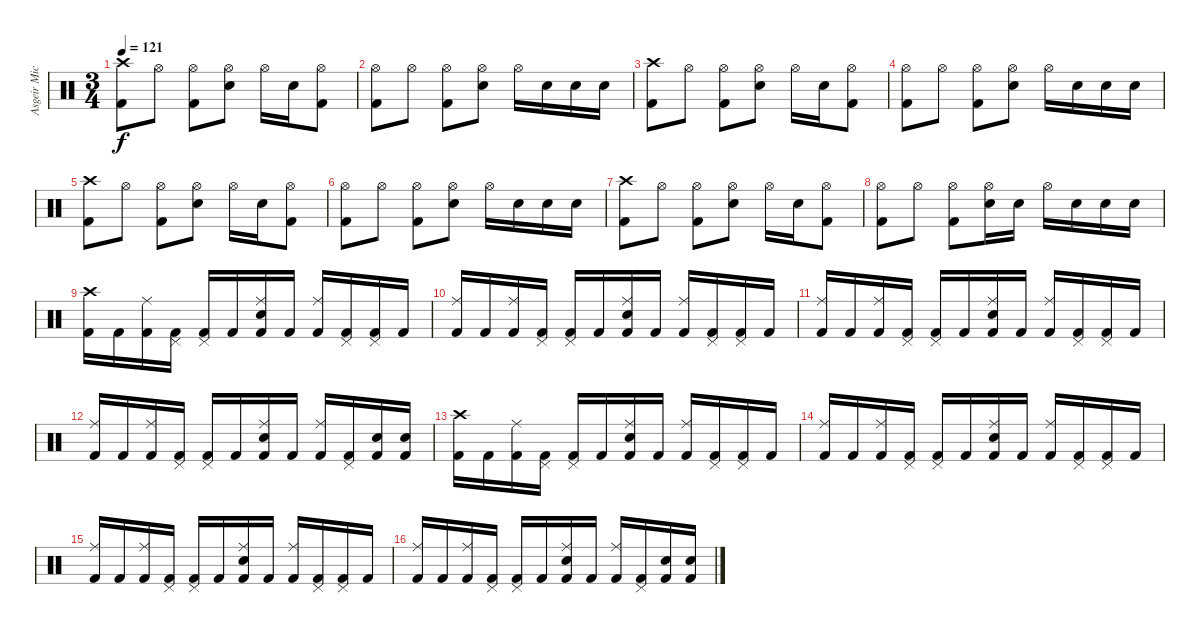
\track ("Asgeir Mickelson" "Asgeir Mic") {instrument percussion}
\staff {score}
\articulation defaults
\ts (3 4)
\tempo 121
\clef neutral
\ks c
("Crash high (hit)" "Kick (hit) 2").8{dy f} "Hi-Hat (open)".8 ("Hi-Hat (open)" "Kick (hit) 2").8 ("Hi-Hat (open)" "Electric Snare (hit)").8 "Hi-Hat (open)".16 "Electric Snare (hit)".16 ("Hi-Hat (open)" "Kick (hit) 2").8 |
("Hi-Hat (open)" "Kick (hit) 2").8 "Hi-Hat (open)".8 ("Hi-Hat (open)" "Kick (hit) 2").8 ("Hi-Hat (open)" "Electric Snare (hit)").8 "Hi-Hat (open)".16 "Electric Snare (hit)".16 "Electric Snare (hit)".16 "Electric Snare (hit)".16 |
("Crash high (hit)" "Kick (hit) 2").8 "Hi-Hat (open)".8 ("Hi-Hat (open)" "Kick (hit) 2").8 ("Hi-Hat (open)" "Electric Snare (hit)").8 "Hi-Hat (open)".16 "Electric Snare (hit)".16 ("Hi-Hat (open)" "Kick (hit) 2").8 |
("Hi-Hat (open)" "Kick (hit) 2").8 "Hi-Hat (open)".8 ("Hi-Hat (open)" "Kick (hit) 2").8 ("Hi-Hat (open)" "Electric Snare (hit)").8 "Hi-Hat (open)".16 "Electric Snare (hit)".16 "Electric Snare (hit)".16 "Electric Snare (hit)".16 |
("Crash high (hit)" "Kick (hit) 2").8 "Hi-Hat (open)".8 ("Hi-Hat (open)" "Kick (hit) 2").8 ("Hi-Hat (open)" "Electric Snare (hit)").8 "Hi-Hat (open)".16 "Electric Snare (hit)".16 ("Hi-Hat (open)" "Kick (hit) 2").8 |
("Hi-Hat (open)" "Kick (hit) 2").8 "Hi-Hat (open)".8 ("Hi-Hat (open)" "Kick (hit) 2").8 ("Hi-Hat (open)" "Electric Snare (hit)").8 "Hi-Hat (open)".16 "Electric Snare (hit)".16 "Electric Snare (hit)".16 "Electric Snare (hit)".16 |
("Crash high (hit)" "Kick (hit) 2").8 "Hi-Hat (open)".8 ("Hi-Hat (open)" "Kick (hit) 2").8 ("Hi-Hat (open)" "Electric Snare (hit)").8 "Hi-Hat (open)".16 "Electric Snare (hit)".16 ("Hi-Hat (open)" "Kick (hit) 2").8 |
("Hi-Hat (open)" "Kick (hit) 2").8 "Hi-Hat (open)".8 ("Hi-Hat (open)" "Kick (hit) 2").8 ("Hi-Hat (open)" "Electric Snare (hit)").16 "Electric Snare (hit)".16 "Hi-Hat (open)".16 "Electric Snare (hit)".16 "Electric Snare (hit)".16 "Electric Snare (hit)".16 |
("Crash high (hit)" "Kick (hit) 2").16 "Kick (hit) 2".16 ("Ride (middle)" "Kick (hit) 2").16 ("Pedal Hi-Hat (hit)" "Kick (hit) 2").16 ("Pedal Hi-Hat (hit)" "Kick (hit) 2").16 "Kick (hit) 2".16 ("Ride (middle)" "Electric Snare (hit)" "Kick (hit) 2").16 "Kick (hit) 2".16 ("Ride (middle)" "Kick (hit) 2").16 ("Pedal Hi-Hat (hit)" "Kick (hit) 2").16 ("Pedal Hi-Hat (hit)" "Kick (hit) 2").16 "Kick (hit) 2".16 |
("Ride (middle)" "Kick (hit) 2").16 "Kick (hit) 2".16 ("Ride (middle)" "Kick (hit) 2").16 ("Pedal Hi-Hat (hit)" "Kick (hit) 2").16 ("Pedal Hi-Hat (hit)" "Kick (hit) 2").16 "Kick (hit) 2".16 ("Ride (middle)" "Electric Snare (hit)" "Kick (hit) 2").16 "Kick (hit) 2".16 ("Ride (middle)" "Kick (hit) 2").16 ("Pedal Hi-Hat (hit)" "Kick (hit) 2").16 ("Pedal Hi-Hat (hit)" "Kick (hit) 2").16 "Kick (hit) 2".16 |
("Ride (middle)" "Kick (hit) 2").16 "Kick (hit) 2".16 ("Ride (middle)" "Kick (hit) 2").16 ("Pedal Hi-Hat (hit)" "Kick (hit) 2").16 ("Pedal Hi-Hat (hit)" "Kick (hit) 2").16 "Kick (hit) 2".16 ("Ride (middle)" "Electric Snare (hit)" "Kick (hit) 2").16 "Kick (hit) 2".16 ("Ride (middle)" "Kick (hit) 2").16 ("Pedal Hi-Hat (hit)" "Kick (hit) 2").16 ("Pedal Hi-Hat (hit)" "Kick (hit) 2").16 "Kick (hit) 2".16 |
("Ride (middle)" "Kick (hit) 2").16 "Kick (hit) 2".16 ("Ride (middle)" "Kick (hit) 2").16 ("Pedal Hi-Hat (hit)" "Kick (hit) 2").16 ("Pedal Hi-Hat (hit)" "Kick (hit) 2").16 "Kick (hit) 2".16 ("Ride (middle)" "Electric Snare (hit)" "Kick (hit) 2").16 "Kick (hit) 2".16 ("Ride (middle)" "Kick (hit) 2").16 ("Pedal Hi-Hat (hit)" "Kick (hit) 2").16 ("Electric Snare (hit)" "Kick (hit) 2").16 ("Electric Snare (hit)" "Kick (hit) 2").16 |
("Crash high (hit)" "Kick (hit) 2").16 "Kick (hit) 2".16 ("Ride (middle)" "Kick (hit) 2").16 ("Pedal Hi-Hat (hit)" "Kick (hit) 2").16 ("Pedal Hi-Hat (hit)" "Kick (hit) 2").16 "Kick (hit) 2".16 ("Ride (middle)" "Electric Snare (hit)" "Kick (hit) 2").16 "Kick (hit) 2".16 ("Ride (middle)" "Kick (hit) 2").16 ("Pedal Hi-Hat (hit)" "Kick (hit) 2").16 ("Pedal Hi-Hat (hit)" "Kick (hit) 2").16 "Kick (hit) 2".16 |
("Ride (middle)" "Kick (hit) 2").16 "Kick (hit) 2".16 ("Ride (middle)" "Kick (hit) 2").16 ("Pedal Hi-Hat (hit)" "Kick (hit) 2").16 ("Pedal Hi-Hat (hit)" "Kick (hit) 2").16 "Kick (hit) 2".16 ("Ride (middle)" "Electric Snare (hit)" "Kick (hit) 2").16 "Kick (hit) 2".16 ("Ride (middle)" "Kick (hit) 2").16 ("Pedal Hi-Hat (hit)" "Kick (hit) 2").16 ("Pedal Hi-Hat (hit)" "Kick (hit) 2").16 "Kick (hit) 2".16 |
("Ride (middle)" "Kick (hit) 2").16 "Kick (hit) 2".16 ("Ride (middle)" "Kick (hit) 2").16 ("Pedal Hi-Hat (hit)" "Kick (hit) 2").16 ("Pedal Hi-Hat (hit)" "Kick (hit) 2").16 "Kick (hit) 2".16 ("Ride (middle)" "Electric Snare (hit)" "Kick (hit) 2").16 "Kick (hit) 2".16 ("Ride (middle)" "Kick (hit) 2").16 ("Pedal Hi-Hat (hit)" "Kick (hit) 2").16 ("Pedal Hi-Hat (hit)" "Kick (hit) 2").16 "Kick (hit) 2".16 |
("Ride (middle)" "Kick (hit) 2").16 "Kick (hit) 2".16 ("Ride (middle)" "Kick (hit) 2").16 ("Pedal Hi-Hat (hit)" "Kick (hit) 2").16 ("Pedal Hi-Hat (hit)" "Kick (hit) 2").16 "Kick (hit) 2".16 ("Ride (middle)" "Electric Snare (hit)" "Kick (hit) 2").16 "Kick (hit) 2".16 ("Ride (middle)" "Kick (hit) 2").16 ("Pedal Hi-Hat (hit)" "Kick (hit) 2").16 ("Electric Snare (hit)" "Kick (hit) 2").16 ("Electric Snare (hit)" "Kick (hit) 2").16
